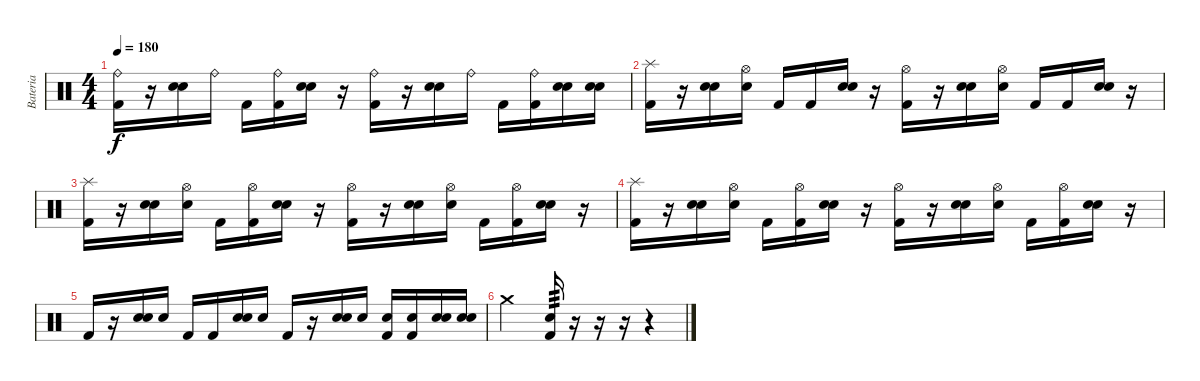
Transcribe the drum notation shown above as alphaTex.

\track ("Bateria" "Bateria") {instrument percussion}
\staff {score}
\articulation defaults
\ts (4 4)
\tempo 180
\clef neutral
\ks c
("Ride (bell)" "Kick (hit) 2").16{dy f} r.16 ("Electric Snare (hit)" "Snare (hit) 2").16 "Ride (bell)".16 "Kick (hit) 2".16 ("Ride (bell)" "Kick (hit) 2").16 ("Electric Snare (hit)" "Snare (hit) 2").16 r.16 ("Ride (bell)" "Kick (hit) 2").16 r.16 ("Electric Snare (hit)" "Snare (hit) 2").16 "Ride (bell)".16 "Kick (hit) 2".16 ("Ride (bell)" "Kick (hit) 2").16 ("Electric Snare (hit)" "Snare (hit) 2").16 ("Electric Snare (hit)" "Snare (hit) 2").16 |
("Splash (hit)" "Kick (hit) 2").16 r.16 ("Electric Snare (hit)" "Snare (hit) 2").16 ("Hi-Hat (open)" "Electric Snare (hit)").16 "Kick (hit) 2".16 "Kick (hit) 2".16 ("Electric Snare (hit)" "Snare (hit) 2").16 r.16 ("Hi-Hat (open)" "Kick (hit) 2").16 r.16 ("Electric Snare (hit)" "Snare (hit) 2").16 ("Hi-Hat (open)" "Electric Snare (hit)").16 "Kick (hit) 2".16 "Kick (hit) 2".16 ("Electric Snare (hit)" "Snare (hit) 2").16 r.16 |
("Splash (hit)" "Kick (hit) 2").16 r.16 ("Electric Snare (hit)" "Snare (hit) 2").16 ("Hi-Hat (open)" "Electric Snare (hit)").16 "Kick (hit) 2".16 ("Hi-Hat (open)" "Kick (hit) 2").16 ("Electric Snare (hit)" "Snare (hit) 2").16 r.16 ("Hi-Hat (open)" "Kick (hit) 2").16 r.16 ("Electric Snare (hit)" "Snare (hit) 2").16 ("Hi-Hat (open)" "Electric Snare (hit)").16 "Kick (hit) 2".16 ("Hi-Hat (open)" "Kick (hit) 2").16 ("Electric Snare (hit)" "Snare (hit) 2").16 r.16 |
("Splash (hit)" "Kick (hit) 2").16 r.16 ("Electric Snare (hit)" "Snare (hit) 2").16 ("Hi-Hat (open)" "Electric Snare (hit)").16 "Kick (hit) 2".16 ("Hi-Hat (open)" "Kick (hit) 2").16 ("Electric Snare (hit)" "Snare (hit) 2").16 r.16 ("Hi-Hat (open)" "Kick (hit) 2").16 r.16 ("Electric Snare (hit)" "Snare (hit) 2").16 ("Hi-Hat (open)" "Electric Snare (hit)").16 "Kick (hit) 2".16 ("Hi-Hat (open)" "Kick (hit) 2").16 ("Electric Snare (hit)" "Snare (hit) 2").16 r.16 |
"Kick (hit) 2".16 r.16 ("Electric Snare (hit)" "Snare (hit) 2").16 "Electric Snare (hit)".16 "Kick (hit) 2".16 "Kick (hit) 2".16 ("Electric Snare (hit)" "Snare (hit) 2").16 "Electric Snare (hit)".16 "Kick (hit) 2".16 r.16 ("Electric Snare (hit)" "Snare (hit) 2").16 "Electric Snare (hit)".16 ("Electric Snare (hit)" "Kick (hit) 2").16 ("Electric Snare (hit)" "Kick (hit) 2").16 ("Electric Snare (hit)" "Snare (hit) 2").16 ("Electric Snare (hit)" "Snare (hit) 2").16 |
"Crash medium (hit)".2 ("Electric Snare (hit)" "Kick (hit) 2").16{tp 3} r.16 r.16 r.16 r.4
